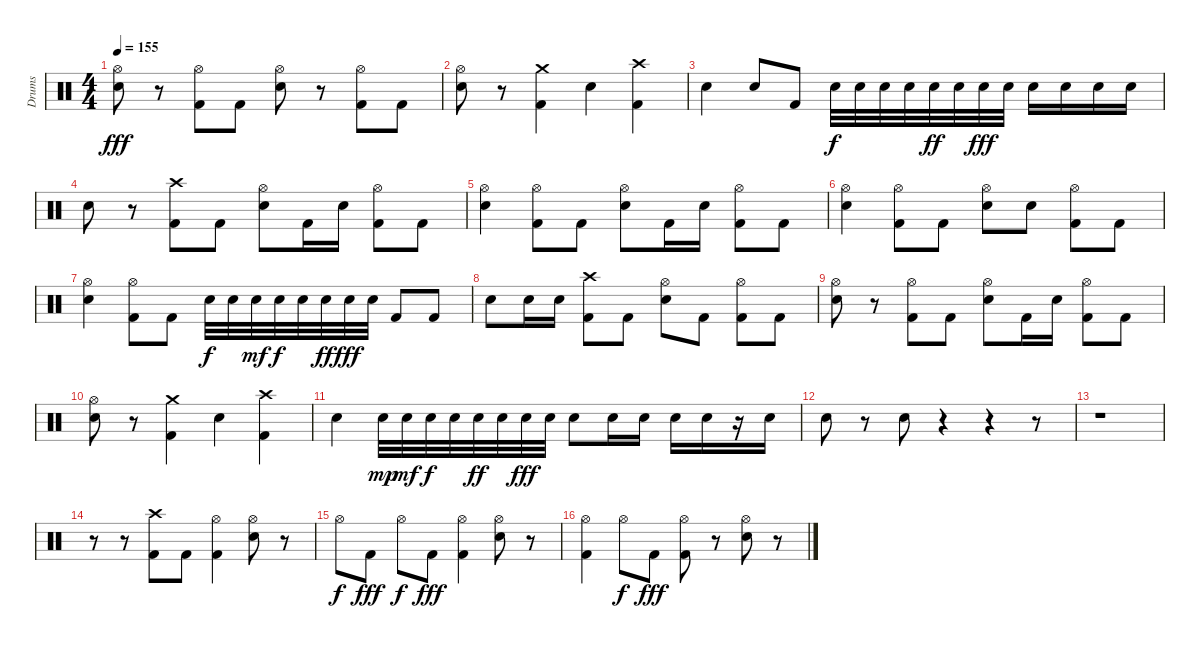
\track ("Drums" "Drums") {instrument percussion}
\staff {score}
\articulation defaults
\ts (4 4)
\tempo 155
\clef neutral
\ks c
("Hi-Hat (open)" "Snare (hit) 2").8{dy fff} r.8 ("Hi-Hat (open)" "Kick (hit) 2").8 "Kick (hit) 2".8 ("Hi-Hat (open)" "Snare (hit) 2").8 r.8 ("Hi-Hat (open)" "Kick (hit) 2").8 "Kick (hit) 2".8 |
("Hi-Hat (open)" "Snare (hit) 2").8 r.8 ("Crash medium (hit)" "Kick (hit) 2").4 "Snare (hit) 2".4 ("Crash high (hit)" "Kick (hit) 2").4 |
"Snare (hit) 2".4 "Snare (hit) 2".8 "Kick (hit) 2".8 "Snare (hit) 2".32{dy f} "Snare (hit) 2".32 "Snare (hit) 2".32 "Snare (hit) 2".32 "Snare (hit) 2".32{dy ff} "Snare (hit) 2".32 "Snare (hit) 2".32{dy fff} "Snare (hit) 2".32 "Snare (hit) 2".16 "Snare (hit) 2".16 "Snare (hit) 2".16 "Snare (hit) 2".16 |
"Snare (hit) 2".8 r.8 ("Crash high (hit)" "Kick (hit) 2").8 "Kick (hit) 2".8 ("Hi-Hat (open)" "Snare (hit) 2").8 "Kick (hit) 2".16 "Snare (hit) 2".16 ("Hi-Hat (open)" "Kick (hit) 2").8 "Kick (hit) 2".8 |
("Hi-Hat (open)" "Snare (hit) 2").4 ("Hi-Hat (open)" "Kick (hit) 2").8 "Kick (hit) 2".8 ("Hi-Hat (open)" "Snare (hit) 2").8 "Kick (hit) 2".16 "Snare (hit) 2".16 ("Hi-Hat (open)" "Kick (hit) 2").8 "Kick (hit) 2".8 |
("Hi-Hat (open)" "Snare (hit) 2").4 ("Hi-Hat (open)" "Kick (hit) 2").8 "Kick (hit) 2".8 ("Hi-Hat (open)" "Snare (hit) 2").8 "Snare (hit) 2".8 ("Hi-Hat (open)" "Kick (hit) 2").8 "Kick (hit) 2".8 |
("Hi-Hat (open)" "Snare (hit) 2").4 ("Hi-Hat (open)" "Kick (hit) 2").8 "Kick (hit) 2".8 "Snare (hit) 2".32{dy f} "Snare (hit) 2".32 "Snare (hit) 2".32{dy mf} "Snare (hit) 2".32{dy f} "Snare (hit) 2".32 "Snare (hit) 2".32{dy ff} "Snare (hit) 2".32{dy fff} "Snare (hit) 2".32 "Kick (hit) 2".8 "Kick (hit) 2".8 |
"Snare (hit) 2".8 "Snare (hit) 2".16 "Snare (hit) 2".16 ("Crash high (hit)" "Kick (hit) 2").8 "Kick (hit) 2".8 ("Hi-Hat (open)" "Snare (hit) 2").8 "Kick (hit) 2".8 ("Hi-Hat (open)" "Kick (hit) 2").8 "Kick (hit) 2".8 |
("Hi-Hat (open)" "Snare (hit) 2").8 r.8 ("Hi-Hat (open)" "Kick (hit) 2").8 "Kick (hit) 2".8 ("Hi-Hat (open)" "Snare (hit) 2").8 "Kick (hit) 2".16 "Snare (hit) 2".16 ("Hi-Hat (open)" "Kick (hit) 2").8 "Kick (hit) 2".8 |
("Hi-Hat (open)" "Snare (hit) 2").8 r.8 ("Crash medium (hit)" "Kick (hit) 2").4 "Snare (hit) 2".4 ("Crash high (hit)" "Kick (hit) 2").4 |
"Snare (hit) 2".4 "Snare (hit) 2".32{dy mp} "Snare (hit) 2".32{dy mf} "Snare (hit) 2".32{dy f} "Snare (hit) 2".32 "Snare (hit) 2".32{dy ff} "Snare (hit) 2".32 "Snare (hit) 2".32{dy fff} "Snare (hit) 2".32 "Snare (hit) 2".8 "Snare (hit) 2".16 "Snare (hit) 2".16 "Snare (hit) 2".16 "Snare (hit) 2".16 r.16 "Snare (hit) 2".16 |
"Snare (hit) 2".8 r.8 "Snare (hit) 2".8 r.4 r.4 r.8 |
r.1 |
r.8 r.8 ("Crash high (hit)" "Kick (hit) 2").8 "Kick (hit) 2".8 ("Hi-Hat (open)" "Kick (hit) 2").4 ("Hi-Hat (open)" "Snare (hit) 2").8 r.8 |
"Hi-Hat (open)".8{dy f} "Kick (hit) 2".8{dy fff} "Hi-Hat (open)".8{dy f} "Kick (hit) 2".8{dy fff} ("Hi-Hat (open)" "Kick (hit) 2").4 ("Hi-Hat (open)" "Snare (hit) 2").8 r.8 |
("Hi-Hat (open)" "Kick (hit) 2").4 "Hi-Hat (open)".8{dy f} "Kick (hit) 2".8{dy fff} ("Hi-Hat (open)" "Kick (hit) 2").8 r.8 ("Hi-Hat (open)" "Snare (hit) 2").8 r.8
